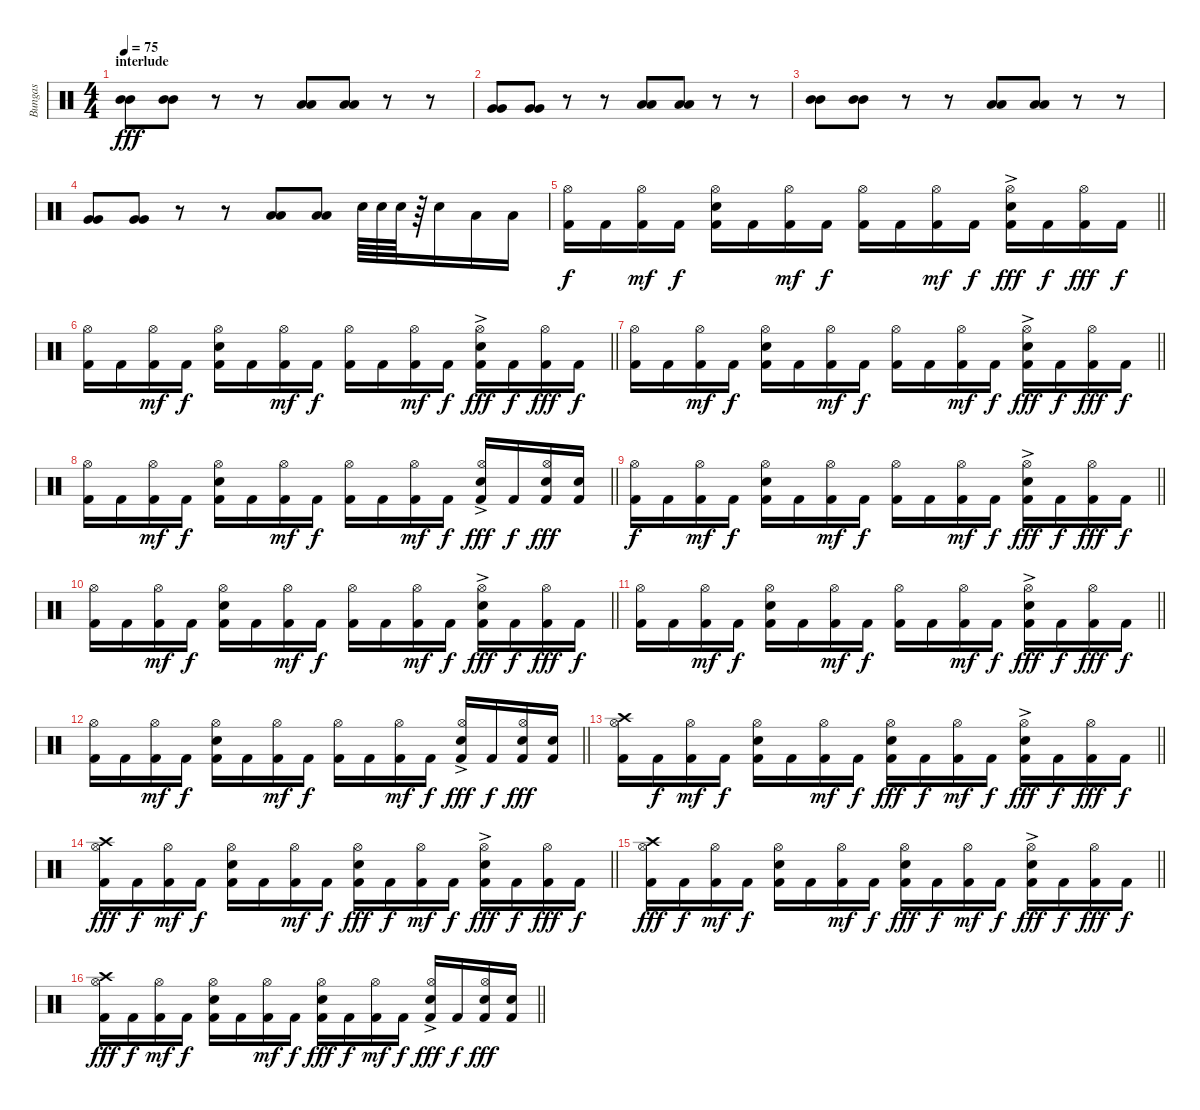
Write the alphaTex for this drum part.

\track ("Bungas" "Bungas") {instrument percussion}
\staff {score}
\articulation defaults
\ts (4 4)
\section ("" "interlude")
\tempo 75
\clef neutral
\ks c
("Mid Tom (hit)" "Mid Tom (hit)").8{dy fff} ("Mid Tom (hit)" "Mid Tom (hit)").8 r.8 r.8 ("Low Tom (hit)" "Low Tom (hit)").8 ("Low Tom (hit)" "Low Tom (hit)").8 r.8 r.8 |
("Very Low Tom (hit)" "Very Low Tom (hit)").8 ("Very Low Tom (hit)" "Very Low Tom (hit)").8 r.8 r.8 ("Low Floor Tom (hit)" "Low Floor Tom (hit)").8 ("Low Floor Tom (hit)" "Low Floor Tom (hit)").8 r.8 r.8 |
("Mid Tom (hit)" "Mid Tom (hit)").8 ("Mid Tom (hit)" "Mid Tom (hit)").8 r.8 r.8 ("Low Tom (hit)" "Low Tom (hit)").8 ("Low Tom (hit)" "Low Tom (hit)").8 r.8 r.8 |
("Very Low Tom (hit)" "Very Low Tom (hit)").8 ("Very Low Tom (hit)" "Very Low Tom (hit)").8 r.8 r.8 ("Low Floor Tom (hit)" "Low Floor Tom (hit)").8 ("Low Floor Tom (hit)" "Low Floor Tom (hit)").8 "Electric Snare (hit)".64 "Electric Snare (hit)".64 "Electric Snare (hit)".64 r.64 "Electric Snare (hit)".16 "Low Floor Tom (hit)".16 "Low Floor Tom (hit)".16 |
\barLineRight lightlight
("Hi-Hat (open)" "Kick (hit) 2").16{dy f} "Kick (hit) 2".16 ("Hi-Hat (open)" "Kick (hit) 2").16{dy mf} "Kick (hit) 2".16{dy f} ("Hi-Hat (open)" "Electric Snare (hit)" "Kick (hit) 2").16 "Kick (hit) 2".16 ("Hi-Hat (open)" "Kick (hit) 2").16{dy mf} "Kick (hit) 2".16{dy f} ("Hi-Hat (open)" "Kick (hit) 2").16 "Kick (hit) 2".16 ("Hi-Hat (open)" "Kick (hit) 2").16{dy mf} "Kick (hit) 2".16{dy f} ("Hi-Hat (open)"{ac} "Electric Snare (hit)" "Kick (hit) 2").16{dy fff} "Kick (hit) 2".16{dy f} ("Hi-Hat (open)" "Kick (hit) 2").16{dy fff} "Kick (hit) 2".16{dy f} |
\barLineRight lightlight
("Hi-Hat (open)" "Kick (hit) 2").16 "Kick (hit) 2".16 ("Hi-Hat (open)" "Kick (hit) 2").16{dy mf} "Kick (hit) 2".16{dy f} ("Hi-Hat (open)" "Electric Snare (hit)" "Kick (hit) 2").16 "Kick (hit) 2".16 ("Hi-Hat (open)" "Kick (hit) 2").16{dy mf} "Kick (hit) 2".16{dy f} ("Hi-Hat (open)" "Kick (hit) 2").16 "Kick (hit) 2".16 ("Hi-Hat (open)" "Kick (hit) 2").16{dy mf} "Kick (hit) 2".16{dy f} ("Hi-Hat (open)"{ac} "Electric Snare (hit)" "Kick (hit) 2").16{dy fff} "Kick (hit) 2".16{dy f} ("Hi-Hat (open)" "Kick (hit) 2").16{dy fff} "Kick (hit) 2".16{dy f} |
\barLineRight lightlight
("Hi-Hat (open)" "Kick (hit) 2").16 "Kick (hit) 2".16 ("Hi-Hat (open)" "Kick (hit) 2").16{dy mf} "Kick (hit) 2".16{dy f} ("Hi-Hat (open)" "Electric Snare (hit)" "Kick (hit) 2").16 "Kick (hit) 2".16 ("Hi-Hat (open)" "Kick (hit) 2").16{dy mf} "Kick (hit) 2".16{dy f} ("Hi-Hat (open)" "Kick (hit) 2").16 "Kick (hit) 2".16 ("Hi-Hat (open)" "Kick (hit) 2").16{dy mf} "Kick (hit) 2".16{dy f} ("Hi-Hat (open)"{ac} "Electric Snare (hit)" "Kick (hit) 2").16{dy fff} "Kick (hit) 2".16{dy f} ("Hi-Hat (open)" "Kick (hit) 2").16{dy fff} "Kick (hit) 2".16{dy f} |
\barLineRight lightlight
("Hi-Hat (open)" "Kick (hit) 2").16 "Kick (hit) 2".16 ("Hi-Hat (open)" "Kick (hit) 2").16{dy mf} "Kick (hit) 2".16{dy f} ("Hi-Hat (open)" "Electric Snare (hit)" "Kick (hit) 2").16 "Kick (hit) 2".16 ("Hi-Hat (open)" "Kick (hit) 2").16{dy mf} "Kick (hit) 2".16{dy f} ("Hi-Hat (open)" "Kick (hit) 2").16 "Kick (hit) 2".16 ("Hi-Hat (open)" "Kick (hit) 2").16{dy mf} "Kick (hit) 2".16{dy f} ("Hi-Hat (open)"{ac} "Electric Snare (hit)" "Kick (hit) 2").16{dy fff} "Kick (hit) 2".16{dy f} ("Hi-Hat (open)" "Electric Snare (hit)" "Kick (hit) 2").16{dy fff} ("Electric Snare (hit)" "Kick (hit) 2").16 |
\barLineRight lightlight
("Hi-Hat (open)" "Kick (hit) 2").16{dy f} "Kick (hit) 2".16 ("Hi-Hat (open)" "Kick (hit) 2").16{dy mf} "Kick (hit) 2".16{dy f} ("Hi-Hat (open)" "Electric Snare (hit)" "Kick (hit) 2").16 "Kick (hit) 2".16 ("Hi-Hat (open)" "Kick (hit) 2").16{dy mf} "Kick (hit) 2".16{dy f} ("Hi-Hat (open)" "Kick (hit) 2").16 "Kick (hit) 2".16 ("Hi-Hat (open)" "Kick (hit) 2").16{dy mf} "Kick (hit) 2".16{dy f} ("Hi-Hat (open)"{ac} "Electric Snare (hit)" "Kick (hit) 2").16{dy fff} "Kick (hit) 2".16{dy f} ("Hi-Hat (open)" "Kick (hit) 2").16{dy fff} "Kick (hit) 2".16{dy f} |
\barLineRight lightlight
("Hi-Hat (open)" "Kick (hit) 2").16 "Kick (hit) 2".16 ("Hi-Hat (open)" "Kick (hit) 2").16{dy mf} "Kick (hit) 2".16{dy f} ("Hi-Hat (open)" "Electric Snare (hit)" "Kick (hit) 2").16 "Kick (hit) 2".16 ("Hi-Hat (open)" "Kick (hit) 2").16{dy mf} "Kick (hit) 2".16{dy f} ("Hi-Hat (open)" "Kick (hit) 2").16 "Kick (hit) 2".16 ("Hi-Hat (open)" "Kick (hit) 2").16{dy mf} "Kick (hit) 2".16{dy f} ("Hi-Hat (open)"{ac} "Electric Snare (hit)" "Kick (hit) 2").16{dy fff} "Kick (hit) 2".16{dy f} ("Hi-Hat (open)" "Kick (hit) 2").16{dy fff} "Kick (hit) 2".16{dy f} |
\barLineRight lightlight
("Hi-Hat (open)" "Kick (hit) 2").16 "Kick (hit) 2".16 ("Hi-Hat (open)" "Kick (hit) 2").16{dy mf} "Kick (hit) 2".16{dy f} ("Hi-Hat (open)" "Electric Snare (hit)" "Kick (hit) 2").16 "Kick (hit) 2".16 ("Hi-Hat (open)" "Kick (hit) 2").16{dy mf} "Kick (hit) 2".16{dy f} ("Hi-Hat (open)" "Kick (hit) 2").16 "Kick (hit) 2".16 ("Hi-Hat (open)" "Kick (hit) 2").16{dy mf} "Kick (hit) 2".16{dy f} ("Hi-Hat (open)"{ac} "Electric Snare (hit)" "Kick (hit) 2").16{dy fff} "Kick (hit) 2".16{dy f} ("Hi-Hat (open)" "Kick (hit) 2").16{dy fff} "Kick (hit) 2".16{dy f} |
\barLineRight lightlight
("Hi-Hat (open)" "Kick (hit) 2").16 "Kick (hit) 2".16 ("Hi-Hat (open)" "Kick (hit) 2").16{dy mf} "Kick (hit) 2".16{dy f} ("Hi-Hat (open)" "Electric Snare (hit)" "Kick (hit) 2").16 "Kick (hit) 2".16 ("Hi-Hat (open)" "Kick (hit) 2").16{dy mf} "Kick (hit) 2".16{dy f} ("Hi-Hat (open)" "Kick (hit) 2").16 "Kick (hit) 2".16 ("Hi-Hat (open)" "Kick (hit) 2").16{dy mf} "Kick (hit) 2".16{dy f} ("Hi-Hat (open)"{ac} "Electric Snare (hit)" "Kick (hit) 2").16{dy fff} "Kick (hit) 2".16{dy f} ("Hi-Hat (open)" "Electric Snare (hit)" "Kick (hit) 2").16{dy fff} ("Electric Snare (hit)" "Kick (hit) 2").16 |
\barLineRight lightlight
("Hi-Hat (open)" "Crash high (hit)" "Kick (hit) 2").16 "Kick (hit) 2".16{dy f} ("Hi-Hat (open)" "Kick (hit) 2").16{dy mf} "Kick (hit) 2".16{dy f} ("Hi-Hat (open)" "Electric Snare (hit)" "Kick (hit) 2").16 "Kick (hit) 2".16 ("Hi-Hat (open)" "Kick (hit) 2").16{dy mf} "Kick (hit) 2".16{dy f} ("Hi-Hat (open)" "Electric Snare (hit)" "Kick (hit) 2").16{dy fff} "Kick (hit) 2".16{dy f} ("Hi-Hat (open)" "Kick (hit) 2").16{dy mf} "Kick (hit) 2".16{dy f} ("Hi-Hat (open)"{ac} "Electric Snare (hit)" "Kick (hit) 2").16{dy fff} "Kick (hit) 2".16{dy f} ("Hi-Hat (open)" "Kick (hit) 2").16{dy fff} "Kick (hit) 2".16{dy f} |
\barLineRight lightlight
("Hi-Hat (open)" "Crash high (hit)" "Kick (hit) 2").16{dy fff} "Kick (hit) 2".16{dy f} ("Hi-Hat (open)" "Kick (hit) 2").16{dy mf} "Kick (hit) 2".16{dy f} ("Hi-Hat (open)" "Electric Snare (hit)" "Kick (hit) 2").16 "Kick (hit) 2".16 ("Hi-Hat (open)" "Kick (hit) 2").16{dy mf} "Kick (hit) 2".16{dy f} ("Hi-Hat (open)" "Electric Snare (hit)" "Kick (hit) 2").16{dy fff} "Kick (hit) 2".16{dy f} ("Hi-Hat (open)" "Kick (hit) 2").16{dy mf} "Kick (hit) 2".16{dy f} ("Hi-Hat (open)"{ac} "Electric Snare (hit)" "Kick (hit) 2").16{dy fff} "Kick (hit) 2".16{dy f} ("Hi-Hat (open)" "Kick (hit) 2").16{dy fff} "Kick (hit) 2".16{dy f} |
\barLineRight lightlight
("Hi-Hat (open)" "Crash high (hit)" "Kick (hit) 2").16{dy fff} "Kick (hit) 2".16{dy f} ("Hi-Hat (open)" "Kick (hit) 2").16{dy mf} "Kick (hit) 2".16{dy f} ("Hi-Hat (open)" "Electric Snare (hit)" "Kick (hit) 2").16 "Kick (hit) 2".16 ("Hi-Hat (open)" "Kick (hit) 2").16{dy mf} "Kick (hit) 2".16{dy f} ("Hi-Hat (open)" "Electric Snare (hit)" "Kick (hit) 2").16{dy fff} "Kick (hit) 2".16{dy f} ("Hi-Hat (open)" "Kick (hit) 2").16{dy mf} "Kick (hit) 2".16{dy f} ("Hi-Hat (open)"{ac} "Electric Snare (hit)" "Kick (hit) 2").16{dy fff} "Kick (hit) 2".16{dy f} ("Hi-Hat (open)" "Kick (hit) 2").16{dy fff} "Kick (hit) 2".16{dy f} |
\barLineRight lightlight
("Hi-Hat (open)" "Crash high (hit)" "Kick (hit) 2").16{dy fff} "Kick (hit) 2".16{dy f} ("Hi-Hat (open)" "Kick (hit) 2").16{dy mf} "Kick (hit) 2".16{dy f} ("Hi-Hat (open)" "Electric Snare (hit)" "Kick (hit) 2").16 "Kick (hit) 2".16 ("Hi-Hat (open)" "Kick (hit) 2").16{dy mf} "Kick (hit) 2".16{dy f} ("Hi-Hat (open)" "Electric Snare (hit)" "Kick (hit) 2").16{dy fff} "Kick (hit) 2".16{dy f} ("Hi-Hat (open)" "Kick (hit) 2").16{dy mf} "Kick (hit) 2".16{dy f} ("Hi-Hat (open)"{ac} "Electric Snare (hit)" "Kick (hit) 2").16{dy fff} "Kick (hit) 2".16{dy f} ("Hi-Hat (open)" "Electric Snare (hit)" "Kick (hit) 2").16{dy fff} ("Electric Snare (hit)" "Kick (hit) 2").16
